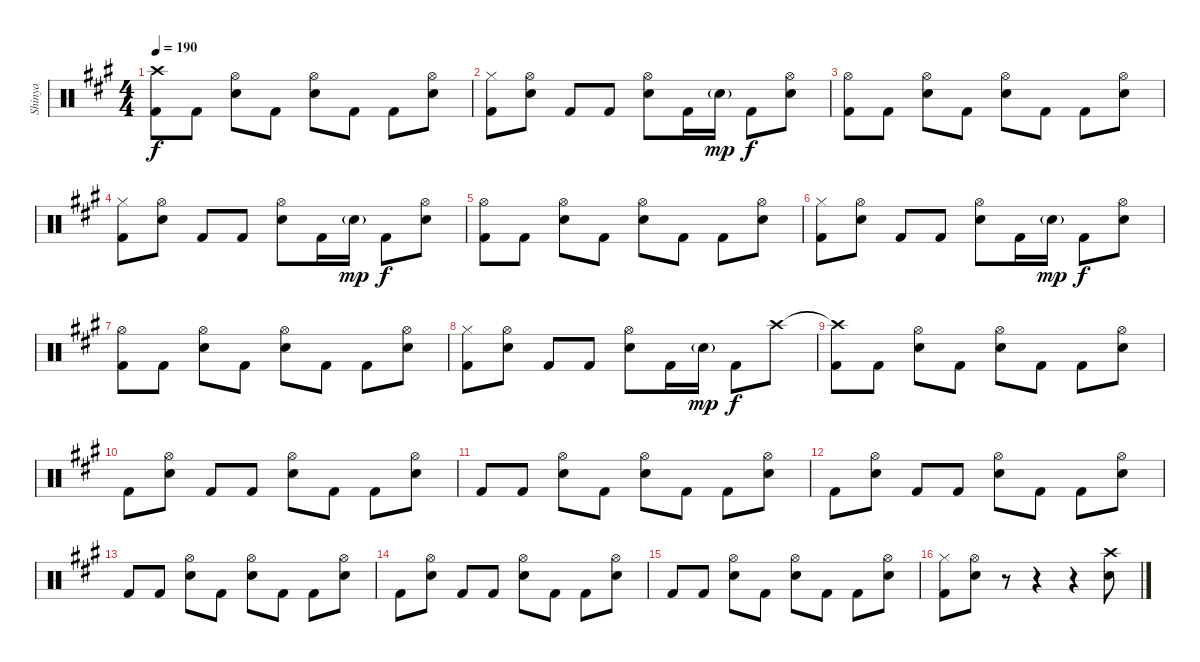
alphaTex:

\track ("Shinya" "Shinya") {instrument percussion}
\staff {score}
\articulation defaults
\ts (4 4)
\tempo 190
\clef neutral
\ks a
("Crash high (hit)" "Kick (hit) 2").8{dy f} "Kick (hit) 2".8 ("Hi-Hat (open)" "Snare (hit) 2").8 "Kick (hit) 2".8 ("Hi-Hat (open)" "Snare (hit) 2").8 "Kick (hit) 2".8 "Kick (hit) 2".8 ("Hi-Hat (open)" "Snare (hit) 2").8 |
("Hi-Hat (closed)" "Kick (hit) 2").8 ("Hi-Hat (open)" "Snare (hit) 2").8 "Kick (hit) 2".8 "Kick (hit) 2".8 ("Snare (hit) 2" "Hi-Hat (open)").8 "Kick (hit) 2".16 "Snare (hit) 2"{g}.16{dy mp} "Kick (hit) 2".8{dy f} ("Snare (hit) 2" "Hi-Hat (open)").8 |
("Hi-Hat (open)" "Kick (hit) 2").8 "Kick (hit) 2".8 ("Hi-Hat (open)" "Snare (hit) 2").8 "Kick (hit) 2".8 ("Hi-Hat (open)" "Snare (hit) 2").8 "Kick (hit) 2".8 "Kick (hit) 2".8 ("Hi-Hat (open)" "Snare (hit) 2").8 |
("Hi-Hat (closed)" "Kick (hit) 2").8 ("Hi-Hat (open)" "Snare (hit) 2").8 "Kick (hit) 2".8 "Kick (hit) 2".8 ("Snare (hit) 2" "Hi-Hat (open)").8 "Kick (hit) 2".16 "Snare (hit) 2"{g}.16{dy mp} "Kick (hit) 2".8{dy f} ("Snare (hit) 2" "Hi-Hat (open)").8 |
("Hi-Hat (open)" "Kick (hit) 2").8 "Kick (hit) 2".8 ("Hi-Hat (open)" "Snare (hit) 2").8 "Kick (hit) 2".8 ("Hi-Hat (open)" "Snare (hit) 2").8 "Kick (hit) 2".8 "Kick (hit) 2".8 ("Hi-Hat (open)" "Snare (hit) 2").8 |
("Hi-Hat (closed)" "Kick (hit) 2").8 ("Hi-Hat (open)" "Snare (hit) 2").8 "Kick (hit) 2".8 "Kick (hit) 2".8 ("Snare (hit) 2" "Hi-Hat (open)").8 "Kick (hit) 2".16 "Snare (hit) 2"{g}.16{dy mp} "Kick (hit) 2".8{dy f} ("Snare (hit) 2" "Hi-Hat (open)").8 |
("Hi-Hat (open)" "Kick (hit) 2").8 "Kick (hit) 2".8 ("Hi-Hat (open)" "Snare (hit) 2").8 "Kick (hit) 2".8 ("Hi-Hat (open)" "Snare (hit) 2").8 "Kick (hit) 2".8 "Kick (hit) 2".8 ("Hi-Hat (open)" "Snare (hit) 2").8 |
("Hi-Hat (closed)" "Kick (hit) 2").8 ("Hi-Hat (open)" "Snare (hit) 2").8 "Kick (hit) 2".8 "Kick (hit) 2".8 ("Snare (hit) 2" "Hi-Hat (open)").8 "Kick (hit) 2".16 "Snare (hit) 2"{g}.16{dy mp} "Kick (hit) 2".8{dy f} "Crash high (hit)".8 |
("Crash high (hit)"{t} "Kick (hit) 2").8 "Kick (hit) 2".8 ("Hi-Hat (open)" "Snare (hit) 2").8 "Kick (hit) 2".8 ("Hi-Hat (open)" "Snare (hit) 2").8 "Kick (hit) 2".8 "Kick (hit) 2".8 ("Hi-Hat (open)" "Snare (hit) 2").8 |
"Kick (hit) 2".8 ("Hi-Hat (open)" "Snare (hit) 2").8 "Kick (hit) 2".8 "Kick (hit) 2".8 ("Snare (hit) 2" "Hi-Hat (open)").8 "Kick (hit) 2".8 "Kick (hit) 2".8 ("Snare (hit) 2" "Hi-Hat (open)").8 |
"Kick (hit) 2".8 "Kick (hit) 2".8 ("Hi-Hat (open)" "Snare (hit) 2").8 "Kick (hit) 2".8 ("Hi-Hat (open)" "Snare (hit) 2").8 "Kick (hit) 2".8 "Kick (hit) 2".8 ("Hi-Hat (open)" "Snare (hit) 2").8 |
"Kick (hit) 2".8 ("Hi-Hat (open)" "Snare (hit) 2").8 "Kick (hit) 2".8 "Kick (hit) 2".8 ("Snare (hit) 2" "Hi-Hat (open)").8 "Kick (hit) 2".8 "Kick (hit) 2".8 ("Snare (hit) 2" "Hi-Hat (open)").8 |
"Kick (hit) 2".8 "Kick (hit) 2".8 ("Hi-Hat (open)" "Snare (hit) 2").8 "Kick (hit) 2".8 ("Hi-Hat (open)" "Snare (hit) 2").8 "Kick (hit) 2".8 "Kick (hit) 2".8 ("Hi-Hat (open)" "Snare (hit) 2").8 |
"Kick (hit) 2".8 ("Hi-Hat (open)" "Snare (hit) 2").8 "Kick (hit) 2".8 "Kick (hit) 2".8 ("Snare (hit) 2" "Hi-Hat (open)").8 "Kick (hit) 2".8 "Kick (hit) 2".8 ("Snare (hit) 2" "Hi-Hat (open)").8 |
"Kick (hit) 2".8 "Kick (hit) 2".8 ("Hi-Hat (open)" "Snare (hit) 2").8 "Kick (hit) 2".8 ("Hi-Hat (open)" "Snare (hit) 2").8 "Kick (hit) 2".8 "Kick (hit) 2".8 ("Hi-Hat (open)" "Snare (hit) 2").8 |
("Hi-Hat (closed)" "Kick (hit) 2").8 ("Hi-Hat (open)" "Snare (hit) 2").8 r.8 r.4 r.4 ("Crash high (hit)" "Snare (hit) 2").8
